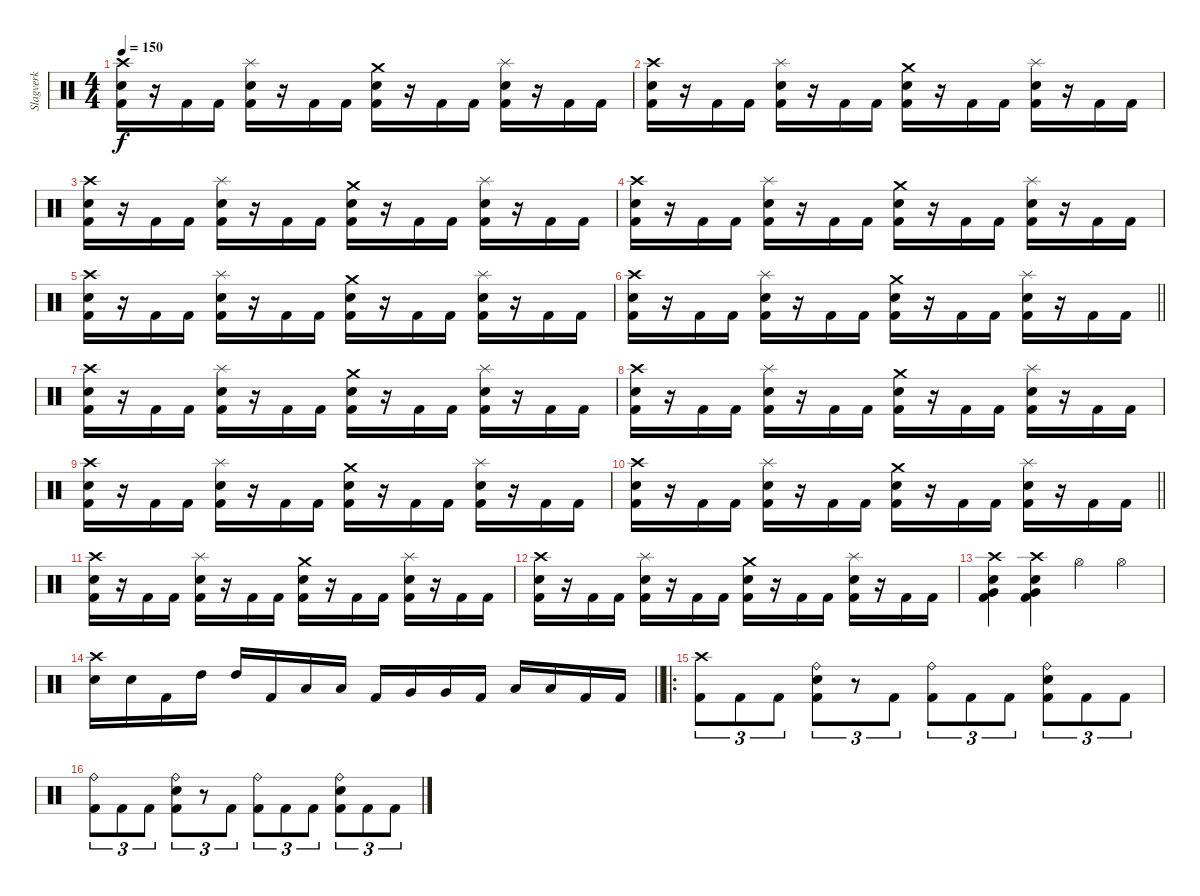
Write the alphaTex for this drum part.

\track ("Slagverk" "Slagverk") {instrument percussion}
\staff {score}
\articulation defaults
\ts (4 4)
\tempo 150
\clef neutral
\ks c
("Crash high (hit)" "Snare (hit) 2" "Kick (hit) 2").16{dy f} r.16 "Kick (hit) 2".16 "Kick (hit) 2".16 ("Splash (hit)" "Snare (hit) 2" "Kick (hit) 2").16 r.16 "Kick (hit) 2".16 "Kick (hit) 2".16 ("Crash medium (hit)" "Snare (hit) 2" "Kick (hit) 2").16 r.16 "Kick (hit) 2".16 "Kick (hit) 2".16 ("Splash (hit)" "Snare (hit) 2" "Kick (hit) 2").16 r.16 "Kick (hit) 2".16 "Kick (hit) 2".16 |
("Crash high (hit)" "Snare (hit) 2" "Kick (hit) 2").16 r.16 "Kick (hit) 2".16 "Kick (hit) 2".16 ("Splash (hit)" "Snare (hit) 2" "Kick (hit) 2").16 r.16 "Kick (hit) 2".16 "Kick (hit) 2".16 ("Crash medium (hit)" "Snare (hit) 2" "Kick (hit) 2").16 r.16 "Kick (hit) 2".16 "Kick (hit) 2".16 ("Splash (hit)" "Snare (hit) 2" "Kick (hit) 2").16 r.16 "Kick (hit) 2".16 "Kick (hit) 2".16 |
("Crash high (hit)" "Snare (hit) 2" "Kick (hit) 2").16 r.16 "Kick (hit) 2".16 "Kick (hit) 2".16 ("Splash (hit)" "Snare (hit) 2" "Kick (hit) 2").16 r.16 "Kick (hit) 2".16 "Kick (hit) 2".16 ("Crash medium (hit)" "Snare (hit) 2" "Kick (hit) 2").16 r.16 "Kick (hit) 2".16 "Kick (hit) 2".16 ("Splash (hit)" "Snare (hit) 2" "Kick (hit) 2").16 r.16 "Kick (hit) 2".16 "Kick (hit) 2".16 |
("Crash high (hit)" "Snare (hit) 2" "Kick (hit) 2").16 r.16 "Kick (hit) 2".16 "Kick (hit) 2".16 ("Splash (hit)" "Snare (hit) 2" "Kick (hit) 2").16 r.16 "Kick (hit) 2".16 "Kick (hit) 2".16 ("Crash medium (hit)" "Snare (hit) 2" "Kick (hit) 2").16 r.16 "Kick (hit) 2".16 "Kick (hit) 2".16 ("Splash (hit)" "Snare (hit) 2" "Kick (hit) 2").16 r.16 "Kick (hit) 2".16 "Kick (hit) 2".16 |
("Crash high (hit)" "Snare (hit) 2" "Kick (hit) 2").16 r.16 "Kick (hit) 2".16 "Kick (hit) 2".16 ("Splash (hit)" "Snare (hit) 2" "Kick (hit) 2").16 r.16 "Kick (hit) 2".16 "Kick (hit) 2".16 ("Crash medium (hit)" "Snare (hit) 2" "Kick (hit) 2").16 r.16 "Kick (hit) 2".16 "Kick (hit) 2".16 ("Splash (hit)" "Snare (hit) 2" "Kick (hit) 2").16 r.16 "Kick (hit) 2".16 "Kick (hit) 2".16 |
\barLineRight lightlight
("Crash high (hit)" "Snare (hit) 2" "Kick (hit) 2").16 r.16 "Kick (hit) 2".16 "Kick (hit) 2".16 ("Splash (hit)" "Snare (hit) 2" "Kick (hit) 2").16 r.16 "Kick (hit) 2".16 "Kick (hit) 2".16 ("Crash medium (hit)" "Snare (hit) 2" "Kick (hit) 2").16 r.16 "Kick (hit) 2".16 "Kick (hit) 2".16 ("Splash (hit)" "Snare (hit) 2" "Kick (hit) 2").16 r.16 "Kick (hit) 2".16 "Kick (hit) 2".16 |
("Crash high (hit)" "Snare (hit) 2" "Kick (hit) 2").16 r.16 "Kick (hit) 2".16 "Kick (hit) 2".16 ("Splash (hit)" "Snare (hit) 2" "Kick (hit) 2").16 r.16 "Kick (hit) 2".16 "Kick (hit) 2".16 ("Crash medium (hit)" "Snare (hit) 2" "Kick (hit) 2").16 r.16 "Kick (hit) 2".16 "Kick (hit) 2".16 ("Splash (hit)" "Snare (hit) 2" "Kick (hit) 2").16 r.16 "Kick (hit) 2".16 "Kick (hit) 2".16 |
("Crash high (hit)" "Snare (hit) 2" "Kick (hit) 2").16 r.16 "Kick (hit) 2".16 "Kick (hit) 2".16 ("Splash (hit)" "Snare (hit) 2" "Kick (hit) 2").16 r.16 "Kick (hit) 2".16 "Kick (hit) 2".16 ("Crash medium (hit)" "Snare (hit) 2" "Kick (hit) 2").16 r.16 "Kick (hit) 2".16 "Kick (hit) 2".16 ("Splash (hit)" "Snare (hit) 2" "Kick (hit) 2").16 r.16 "Kick (hit) 2".16 "Kick (hit) 2".16 |
("Crash high (hit)" "Snare (hit) 2" "Kick (hit) 2").16 r.16 "Kick (hit) 2".16 "Kick (hit) 2".16 ("Splash (hit)" "Snare (hit) 2" "Kick (hit) 2").16 r.16 "Kick (hit) 2".16 "Kick (hit) 2".16 ("Crash medium (hit)" "Snare (hit) 2" "Kick (hit) 2").16 r.16 "Kick (hit) 2".16 "Kick (hit) 2".16 ("Splash (hit)" "Snare (hit) 2" "Kick (hit) 2").16 r.16 "Kick (hit) 2".16 "Kick (hit) 2".16 |
\barLineRight lightlight
("Crash high (hit)" "Snare (hit) 2" "Kick (hit) 2").16 r.16 "Kick (hit) 2".16 "Kick (hit) 2".16 ("Splash (hit)" "Snare (hit) 2" "Kick (hit) 2").16 r.16 "Kick (hit) 2".16 "Kick (hit) 2".16 ("Crash medium (hit)" "Snare (hit) 2" "Kick (hit) 2").16 r.16 "Kick (hit) 2".16 "Kick (hit) 2".16 ("Splash (hit)" "Snare (hit) 2" "Kick (hit) 2").16 r.16 "Kick (hit) 2".16 "Kick (hit) 2".16 |
("Crash high (hit)" "Snare (hit) 2" "Kick (hit) 2").16 r.16 "Kick (hit) 2".16 "Kick (hit) 2".16 ("Splash (hit)" "Snare (hit) 2" "Kick (hit) 2").16 r.16 "Kick (hit) 2".16 "Kick (hit) 2".16 ("Crash medium (hit)" "Snare (hit) 2" "Kick (hit) 2").16 r.16 "Kick (hit) 2".16 "Kick (hit) 2".16 ("Splash (hit)" "Snare (hit) 2" "Kick (hit) 2").16 r.16 "Kick (hit) 2".16 "Kick (hit) 2".16 |
("Crash high (hit)" "Snare (hit) 2" "Kick (hit) 2").16 r.16 "Kick (hit) 2".16 "Kick (hit) 2".16 ("Splash (hit)" "Snare (hit) 2" "Kick (hit) 2").16 r.16 "Kick (hit) 2".16 "Kick (hit) 2".16 ("Crash medium (hit)" "Snare (hit) 2" "Kick (hit) 2").16 r.16 "Kick (hit) 2".16 "Kick (hit) 2".16 ("Splash (hit)" "Snare (hit) 2" "Kick (hit) 2").16 r.16 "Kick (hit) 2".16 "Kick (hit) 2".16 |
("Crash high (hit)" "Snare (hit) 2" "Very Low Tom (hit)" "Kick (hit) 2").4 ("Crash high (hit)" "Snare (hit) 2" "Very Low Tom (hit)" "Kick (hit) 2").4 "Hi-Hat (open)".4 "Hi-Hat (open)".4 |
\barLineRight lightlight
("Crash high (hit)" "Snare (hit) 2").16 "Snare (hit) 2".16 "Kick (hit) 2".16 "High Tom (hit)".16 "High Tom (hit)".16 "Kick (hit) 2".16 "Low Tom (hit)".16 "Low Tom (hit)".16 "Kick (hit) 2".16 "Very Low Tom (hit)".16 "Very Low Tom (hit)".16 "Kick (hit) 2".16 "Low Floor Tom (hit)".16 "Low Floor Tom (hit)".16 "Kick (hit) 2".16 "Kick (hit) 2".16 |
\ro
("Crash high (hit)" "Kick (hit) 2").8{tu (3 2)} "Kick (hit) 2".8{tu (3 2)} "Kick (hit) 2".8{tu (3 2)} ("Ride (bell)" "Snare (hit) 2" "Kick (hit) 2").8{tu (3 2)} r.8{tu (3 2)} "Kick (hit) 2".8{tu (3 2)} ("Ride (bell)" "Kick (hit) 2").8{tu (3 2)} "Kick (hit) 2".8{tu (3 2)} "Kick (hit) 2".8{tu (3 2)} ("Ride (bell)" "Snare (hit) 2" "Kick (hit) 2").8{tu (3 2)} "Kick (hit) 2".8{tu (3 2)} "Kick (hit) 2".8{tu (3 2)} |
("Ride (bell)" "Kick (hit) 2").8{tu (3 2)} "Kick (hit) 2".8{tu (3 2)} "Kick (hit) 2".8{tu (3 2)} ("Ride (bell)" "Snare (hit) 2" "Kick (hit) 2").8{tu (3 2)} r.8{tu (3 2)} "Kick (hit) 2".8{tu (3 2)} ("Ride (bell)" "Kick (hit) 2").8{tu (3 2)} "Kick (hit) 2".8{tu (3 2)} "Kick (hit) 2".8{tu (3 2)} ("Ride (bell)" "Snare (hit) 2" "Kick (hit) 2").8{tu (3 2)} "Kick (hit) 2".8{tu (3 2)} "Kick (hit) 2".8{tu (3 2)}
